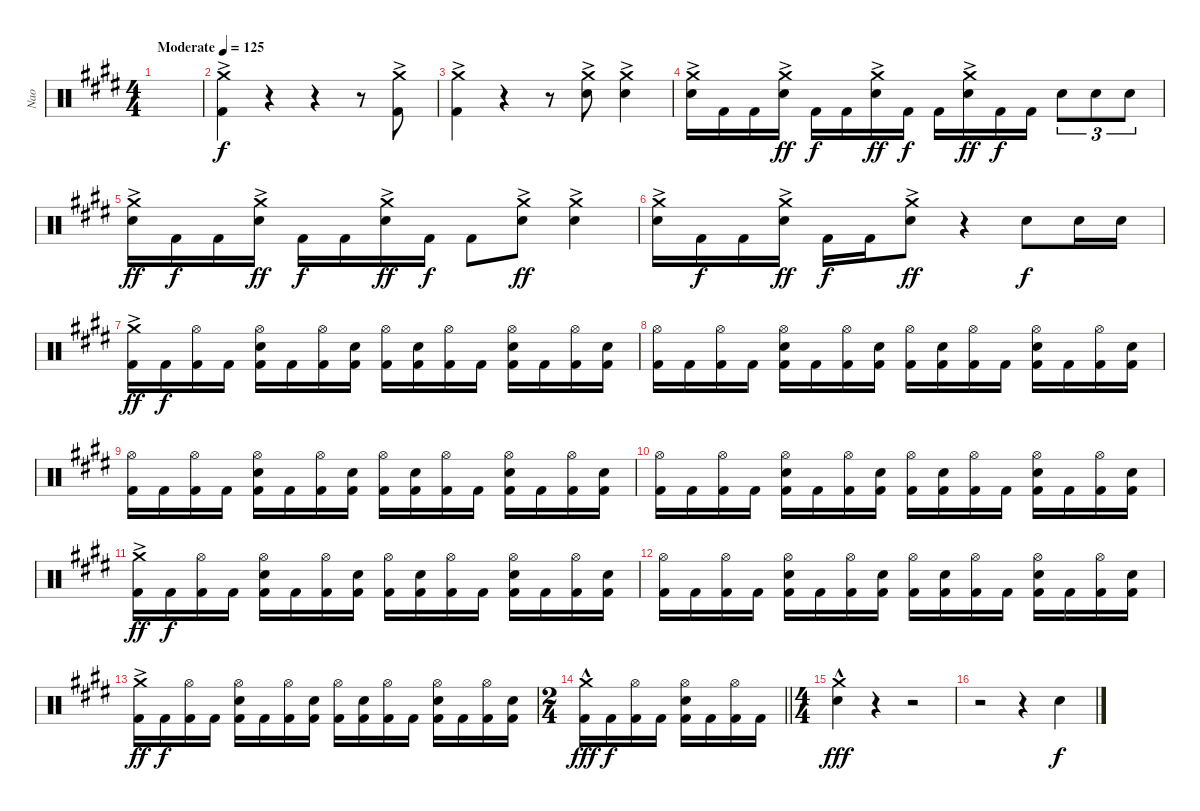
\track ("Nao" "Nao") {instrument percussion}
\staff {score}
\articulation defaults
\ts (4 4)
\tempo (125 "Moderate")
\clef neutral
\ks e
|
("Crash medium (hit)"{ac} "Kick (hit) 2").4 r.4 r.4 r.8 ("Crash medium (hit)"{ac} "Kick (hit) 2").8 |
("Crash medium (hit)"{ac} "Kick (hit) 2").4 r.4 r.8 ("Crash medium (hit)"{ac} "Snare (hit) 2").8 ("Crash medium (hit)"{ac} "Snare (hit) 2").4 |
("Crash medium (hit)"{ac} "Snare (hit) 2").16 "Kick (hit) 2".16{dy f} "Kick (hit) 2".16 ("Crash medium (hit)"{ac} "Snare (hit) 2").16{dy ff} "Kick (hit) 2".16{dy f} "Kick (hit) 2".16 ("Crash medium (hit)"{ac} "Snare (hit) 2").16{dy ff} "Kick (hit) 2".16{dy f} "Kick (hit) 2".16 ("Crash medium (hit)"{ac} "Snare (hit) 2").16{dy ff} "Kick (hit) 2".16{dy f} "Kick (hit) 2".16 "Snare (hit) 2".8{tu (3 2)} "Snare (hit) 2".8{tu (3 2)} "Snare (hit) 2".8{tu (3 2)} |
("Crash medium (hit)"{ac} "Snare (hit) 2").16{dy ff} "Kick (hit) 2".16{dy f} "Kick (hit) 2".16 ("Crash medium (hit)"{ac} "Snare (hit) 2").16{dy ff} "Kick (hit) 2".16{dy f} "Kick (hit) 2".16 ("Crash medium (hit)"{ac} "Snare (hit) 2").16{dy ff} "Kick (hit) 2".16{dy f} "Kick (hit) 2".8 ("Crash medium (hit)"{ac} "Snare (hit) 2").8{dy ff} ("Crash medium (hit)"{ac} "Snare (hit) 2").4 |
("Crash medium (hit)"{ac} "Snare (hit) 2").16 "Kick (hit) 2".16{dy f} "Kick (hit) 2".16 ("Crash medium (hit)"{ac} "Snare (hit) 2").16{dy ff} "Kick (hit) 2".16{dy f} "Kick (hit) 2".16 ("Crash medium (hit)"{ac} "Snare (hit) 2").8{dy ff} r.4 "Snare (hit) 2".8{dy f} "Snare (hit) 2".16 "Snare (hit) 2".16 |
("Crash medium (hit)"{ac} "Kick (hit) 2").16{dy ff} "Kick (hit) 2".16{dy f} ("Hi-Hat (open)" "Kick (hit) 2").16 "Kick (hit) 2".16 ("Hi-Hat (open)" "Snare (hit) 2" "Kick (hit) 2").16 "Kick (hit) 2".16 ("Hi-Hat (open)" "Kick (hit) 2").16 ("Snare (hit) 2" "Kick (hit) 2").16 ("Hi-Hat (open)" "Kick (hit) 2").16 ("Snare (hit) 2" "Kick (hit) 2").16 ("Hi-Hat (open)" "Kick (hit) 2").16 "Kick (hit) 2".16 ("Hi-Hat (open)" "Snare (hit) 2" "Kick (hit) 2").16 "Kick (hit) 2".16 ("Hi-Hat (open)" "Kick (hit) 2").16 ("Snare (hit) 2" "Kick (hit) 2").16 |
("Hi-Hat (open)" "Kick (hit) 2").16 "Kick (hit) 2".16 ("Hi-Hat (open)" "Kick (hit) 2").16 "Kick (hit) 2".16 ("Hi-Hat (open)" "Snare (hit) 2" "Kick (hit) 2").16 "Kick (hit) 2".16 ("Hi-Hat (open)" "Kick (hit) 2").16 ("Snare (hit) 2" "Kick (hit) 2").16 ("Hi-Hat (open)" "Kick (hit) 2").16 ("Snare (hit) 2" "Kick (hit) 2").16 ("Hi-Hat (open)" "Kick (hit) 2").16 "Kick (hit) 2".16 ("Hi-Hat (open)" "Snare (hit) 2" "Kick (hit) 2").16 "Kick (hit) 2".16 ("Hi-Hat (open)" "Kick (hit) 2").16 ("Snare (hit) 2" "Kick (hit) 2").16 |
("Hi-Hat (open)" "Kick (hit) 2").16 "Kick (hit) 2".16 ("Hi-Hat (open)" "Kick (hit) 2").16 "Kick (hit) 2".16 ("Hi-Hat (open)" "Snare (hit) 2" "Kick (hit) 2").16 "Kick (hit) 2".16 ("Hi-Hat (open)" "Kick (hit) 2").16 ("Snare (hit) 2" "Kick (hit) 2").16 ("Hi-Hat (open)" "Kick (hit) 2").16 ("Snare (hit) 2" "Kick (hit) 2").16 ("Hi-Hat (open)" "Kick (hit) 2").16 "Kick (hit) 2".16 ("Hi-Hat (open)" "Snare (hit) 2" "Kick (hit) 2").16 "Kick (hit) 2".16 ("Hi-Hat (open)" "Kick (hit) 2").16 ("Snare (hit) 2" "Kick (hit) 2").16 |
("Hi-Hat (open)" "Kick (hit) 2").16 "Kick (hit) 2".16 ("Hi-Hat (open)" "Kick (hit) 2").16 "Kick (hit) 2".16 ("Hi-Hat (open)" "Snare (hit) 2" "Kick (hit) 2").16 "Kick (hit) 2".16 ("Hi-Hat (open)" "Kick (hit) 2").16 ("Snare (hit) 2" "Kick (hit) 2").16 ("Hi-Hat (open)" "Kick (hit) 2").16 ("Snare (hit) 2" "Kick (hit) 2").16 ("Hi-Hat (open)" "Kick (hit) 2").16 "Kick (hit) 2".16 ("Hi-Hat (open)" "Snare (hit) 2" "Kick (hit) 2").16 "Kick (hit) 2".16 ("Hi-Hat (open)" "Kick (hit) 2").16 ("Snare (hit) 2" "Kick (hit) 2").16 |
("Crash medium (hit)"{ac} "Kick (hit) 2").16{dy ff} "Kick (hit) 2".16{dy f} ("Hi-Hat (open)" "Kick (hit) 2").16 "Kick (hit) 2".16 ("Hi-Hat (open)" "Snare (hit) 2" "Kick (hit) 2").16 "Kick (hit) 2".16 ("Hi-Hat (open)" "Kick (hit) 2").16 ("Snare (hit) 2" "Kick (hit) 2").16 ("Hi-Hat (open)" "Kick (hit) 2").16 ("Snare (hit) 2" "Kick (hit) 2").16 ("Hi-Hat (open)" "Kick (hit) 2").16 "Kick (hit) 2".16 ("Hi-Hat (open)" "Snare (hit) 2" "Kick (hit) 2").16 "Kick (hit) 2".16 ("Hi-Hat (open)" "Kick (hit) 2").16 ("Snare (hit) 2" "Kick (hit) 2").16 |
("Hi-Hat (open)" "Kick (hit) 2").16 "Kick (hit) 2".16 ("Hi-Hat (open)" "Kick (hit) 2").16 "Kick (hit) 2".16 ("Hi-Hat (open)" "Snare (hit) 2" "Kick (hit) 2").16 "Kick (hit) 2".16 ("Hi-Hat (open)" "Kick (hit) 2").16 ("Snare (hit) 2" "Kick (hit) 2").16 ("Hi-Hat (open)" "Kick (hit) 2").16 ("Snare (hit) 2" "Kick (hit) 2").16 ("Hi-Hat (open)" "Kick (hit) 2").16 "Kick (hit) 2".16 ("Hi-Hat (open)" "Snare (hit) 2" "Kick (hit) 2").16 "Kick (hit) 2".16 ("Hi-Hat (open)" "Kick (hit) 2").16 ("Snare (hit) 2" "Kick (hit) 2").16 |
("Crash medium (hit)"{ac} "Kick (hit) 2").16{dy ff} "Kick (hit) 2".16{dy f} ("Hi-Hat (open)" "Kick (hit) 2").16 "Kick (hit) 2".16 ("Hi-Hat (open)" "Snare (hit) 2" "Kick (hit) 2").16 "Kick (hit) 2".16 ("Hi-Hat (open)" "Kick (hit) 2").16 ("Snare (hit) 2" "Kick (hit) 2").16 ("Hi-Hat (open)" "Kick (hit) 2").16 ("Snare (hit) 2" "Kick (hit) 2").16 ("Hi-Hat (open)" "Kick (hit) 2").16 "Kick (hit) 2".16 ("Hi-Hat (open)" "Snare (hit) 2" "Kick (hit) 2").16 "Kick (hit) 2".16 ("Hi-Hat (open)" "Kick (hit) 2").16 ("Snare (hit) 2" "Kick (hit) 2").16 |
\ts (2 4)
\barLineRight lightlight
("Crash medium (hit)"{hac} "Kick (hit) 2").16{dy fff} "Kick (hit) 2".16{dy f} ("Hi-Hat (open)" "Kick (hit) 2").16 "Kick (hit) 2".16 ("Hi-Hat (open)" "Snare (hit) 2" "Kick (hit) 2").16 "Kick (hit) 2".16 ("Hi-Hat (open)" "Kick (hit) 2").16 "Kick (hit) 2".16 |
\ts (4 4)
("Crash medium (hit)"{hac} "Snare (hit) 2").4{dy fff} r.4 r.2 |
r.2 r.4 "Snare (hit) 2".4{dy f}
